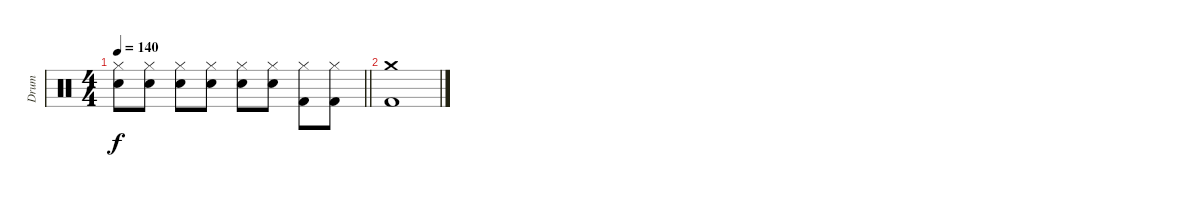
\track ("Drum" "Drum") {instrument percussion}
\staff {score}
\articulation defaults
\ts (4 4)
\tempo 140
\clef neutral
\barLineRight lightlight
\ks c
("Hi-Hat (closed)" "Electric Snare (hit)").8{dy f} ("Hi-Hat (closed)" "Electric Snare (hit)").8 ("Hi-Hat (closed)" "Electric Snare (hit)").8 ("Hi-Hat (closed)" "Electric Snare (hit)").8 ("Hi-Hat (closed)" "Electric Snare (hit)").8 ("Hi-Hat (closed)" "Electric Snare (hit)").8 ("Hi-Hat (closed)" "Kick (hit) 2").8 ("Hi-Hat (closed)" "Kick (hit) 2").8 |
("Crash medium (hit)" "Kick (hit) 2").1
